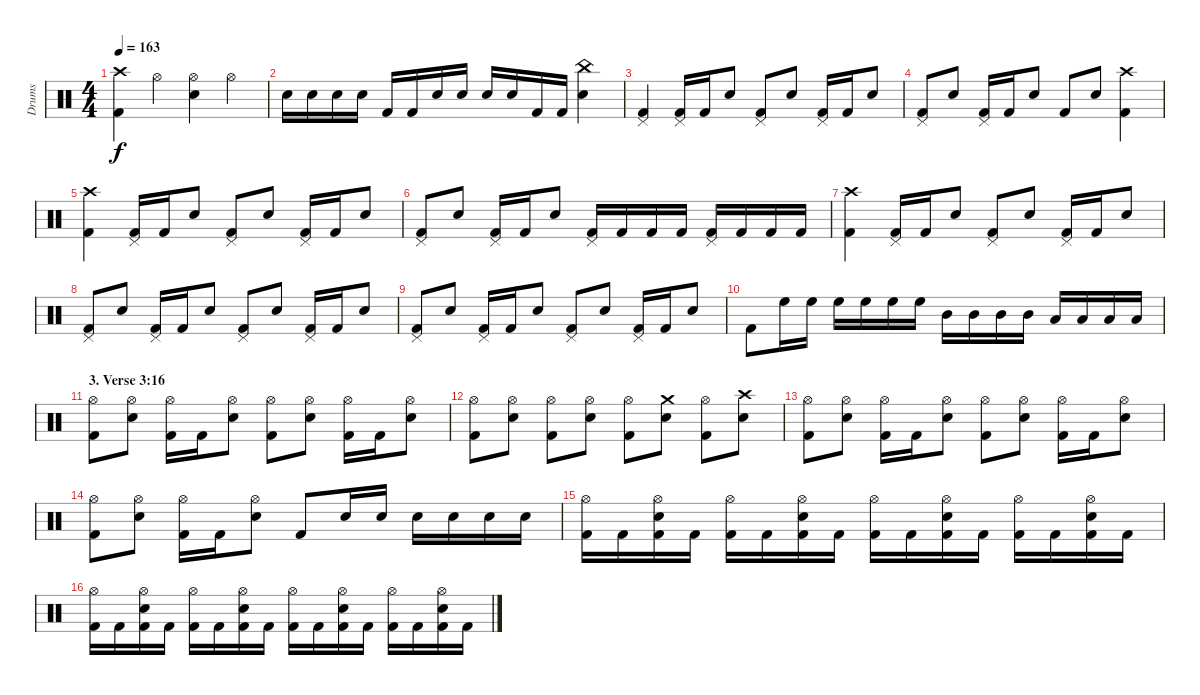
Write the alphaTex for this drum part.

\track ("Drums" "Drums") {instrument percussion}
\staff {score}
\articulation defaults
\ts (4 4)
\tempo 163
\clef neutral
\ks c
("Crash high (hit)" "Kick (hit) 2").4{dy f} "Hi-Hat (open)".4 ("Hi-Hat (open)" "Snare (hit) 2").4 "Hi-Hat (open)".4 |
"Snare (hit) 2".16 "Snare (hit) 2".16 "Snare (hit) 2".16 "Snare (hit) 2".16 "Kick (hit) 2".16 "Kick (hit) 2".16 "Snare (hit) 2".16 "Snare (hit) 2".16 "Snare (hit) 2".16 "Snare (hit) 2".16 "Kick (hit) 2".16 "Kick (hit) 2".16 ("Snare (hit) 2" "China (hit)").4 |
("Pedal Hi-Hat (hit)" "Kick (hit) 2").4 ("Pedal Hi-Hat (hit)" "Kick (hit) 2").16 "Kick (hit) 2".16 "Snare (hit) 2".8 ("Pedal Hi-Hat (hit)" "Kick (hit) 2").8 "Snare (hit) 2".8 ("Pedal Hi-Hat (hit)" "Kick (hit) 2").16 "Kick (hit) 2".16 "Snare (hit) 2".8 |
("Pedal Hi-Hat (hit)" "Kick (hit) 2").8 "Snare (hit) 2".8 ("Pedal Hi-Hat (hit)" "Kick (hit) 2").16 "Kick (hit) 2".16 "Snare (hit) 2".8 "Kick (hit) 2".8 "Snare (hit) 2".8 ("Crash high (hit)" "Kick (hit) 2").4 |
("Crash high (hit)" "Kick (hit) 2").4 ("Pedal Hi-Hat (hit)" "Kick (hit) 2").16 "Kick (hit) 2".16 "Snare (hit) 2".8 ("Pedal Hi-Hat (hit)" "Kick (hit) 2").8 "Snare (hit) 2".8 ("Pedal Hi-Hat (hit)" "Kick (hit) 2").16 "Kick (hit) 2".16 "Snare (hit) 2".8 |
("Pedal Hi-Hat (hit)" "Kick (hit) 2").8 "Snare (hit) 2".8 ("Pedal Hi-Hat (hit)" "Kick (hit) 2").16 "Kick (hit) 2".16 "Snare (hit) 2".8 ("Pedal Hi-Hat (hit)" "Kick (hit) 2").16 "Kick (hit) 2".16 "Kick (hit) 2".16 "Kick (hit) 2".16 ("Pedal Hi-Hat (hit)" "Kick (hit) 2").16 "Kick (hit) 2".16 "Kick (hit) 2".16 "Kick (hit) 2".16 |
("Crash high (hit)" "Kick (hit) 2").4 ("Pedal Hi-Hat (hit)" "Kick (hit) 2").16 "Kick (hit) 2".16 "Snare (hit) 2".8 ("Pedal Hi-Hat (hit)" "Kick (hit) 2").8 "Snare (hit) 2".8 ("Pedal Hi-Hat (hit)" "Kick (hit) 2").16 "Kick (hit) 2".16 "Snare (hit) 2".8 |
("Pedal Hi-Hat (hit)" "Kick (hit) 2").8 "Snare (hit) 2".8 ("Pedal Hi-Hat (hit)" "Kick (hit) 2").16 "Kick (hit) 2".16 "Snare (hit) 2".8 ("Pedal Hi-Hat (hit)" "Kick (hit) 2").8 "Snare (hit) 2".8 ("Pedal Hi-Hat (hit)" "Kick (hit) 2").16 "Kick (hit) 2".16 "Snare (hit) 2".8 |
("Pedal Hi-Hat (hit)" "Kick (hit) 2").8 "Snare (hit) 2".8 ("Pedal Hi-Hat (hit)" "Kick (hit) 2").16 "Kick (hit) 2".16 "Snare (hit) 2".8 ("Pedal Hi-Hat (hit)" "Kick (hit) 2").8 "Snare (hit) 2".8 ("Pedal Hi-Hat (hit)" "Kick (hit) 2").16 "Kick (hit) 2".16 "Snare (hit) 2".8 |
"Kick (hit) 2".8 "High Floor Tom (hit)".16 "High Floor Tom (hit)".16 "High Floor Tom (hit)".16 "High Floor Tom (hit)".16 "High Floor Tom (hit)".16 "High Floor Tom (hit)".16 "Mid Tom (hit)".16 "Mid Tom (hit)".16 "Mid Tom (hit)".16 "Mid Tom (hit)".16 "Low Tom (hit)".16 "Low Tom (hit)".16 "Low Tom (hit)".16 "Low Tom (hit)".16 |
\section ("" "3. Verse 3:16")
("Hi-Hat (open)" "Kick (hit) 2").8 ("Hi-Hat (open)" "Snare (hit) 2").8 ("Hi-Hat (open)" "Kick (hit) 2").16 "Kick (hit) 2".16 ("Hi-Hat (open)" "Snare (hit) 2").8 ("Hi-Hat (open)" "Kick (hit) 2").8 ("Hi-Hat (open)" "Snare (hit) 2").8 ("Hi-Hat (open)" "Kick (hit) 2").16 "Kick (hit) 2".16 ("Hi-Hat (open)" "Snare (hit) 2").8 |
("Hi-Hat (open)" "Kick (hit) 2").8 ("Hi-Hat (open)" "Snare (hit) 2").8 ("Hi-Hat (open)" "Kick (hit) 2").8 ("Hi-Hat (open)" "Snare (hit) 2").8 ("Hi-Hat (open)" "Kick (hit) 2").8 ("Crash medium (hit)" "Snare (hit) 2").8 ("Hi-Hat (open)" "Kick (hit) 2").8 ("Crash high (hit)" "Snare (hit) 2").8 |
("Hi-Hat (open)" "Kick (hit) 2").8 ("Hi-Hat (open)" "Snare (hit) 2").8 ("Hi-Hat (open)" "Kick (hit) 2").16 "Kick (hit) 2".16 ("Hi-Hat (open)" "Snare (hit) 2").8 ("Hi-Hat (open)" "Kick (hit) 2").8 ("Hi-Hat (open)" "Snare (hit) 2").8 ("Hi-Hat (open)" "Kick (hit) 2").16 "Kick (hit) 2".16 ("Hi-Hat (open)" "Snare (hit) 2").8 |
("Hi-Hat (open)" "Kick (hit) 2").8 ("Hi-Hat (open)" "Snare (hit) 2").8 ("Hi-Hat (open)" "Kick (hit) 2").16 "Kick (hit) 2".16 ("Hi-Hat (open)" "Snare (hit) 2").8 "Kick (hit) 2".8 "Snare (hit) 2".16 "Snare (hit) 2".16 "Snare (hit) 2".16 "Snare (hit) 2".16 "Snare (hit) 2".16 "Snare (hit) 2".16 |
("Hi-Hat (open)" "Kick (hit) 2").16 "Kick (hit) 2".16 ("Hi-Hat (open)" "Kick (hit) 2" "Snare (hit) 2").16 "Kick (hit) 2".16 ("Hi-Hat (open)" "Kick (hit) 2").16 "Kick (hit) 2".16 ("Hi-Hat (open)" "Kick (hit) 2" "Snare (hit) 2").16 "Kick (hit) 2".16 ("Hi-Hat (open)" "Kick (hit) 2").16 "Kick (hit) 2".16 ("Hi-Hat (open)" "Kick (hit) 2" "Snare (hit) 2").16 "Kick (hit) 2".16 ("Hi-Hat (open)" "Kick (hit) 2").16 "Kick (hit) 2".16 ("Hi-Hat (open)" "Kick (hit) 2" "Snare (hit) 2").16 "Kick (hit) 2".16 |
("Hi-Hat (open)" "Kick (hit) 2").16 "Kick (hit) 2".16 ("Hi-Hat (open)" "Kick (hit) 2" "Snare (hit) 2").16 "Kick (hit) 2".16 ("Hi-Hat (open)" "Kick (hit) 2").16 "Kick (hit) 2".16 ("Hi-Hat (open)" "Kick (hit) 2" "Snare (hit) 2").16 "Kick (hit) 2".16 ("Hi-Hat (open)" "Kick (hit) 2").16 "Kick (hit) 2".16 ("Hi-Hat (open)" "Kick (hit) 2" "Snare (hit) 2").16 "Kick (hit) 2".16 ("Hi-Hat (open)" "Kick (hit) 2").16 "Kick (hit) 2".16 ("Hi-Hat (open)" "Kick (hit) 2" "Snare (hit) 2").16 "Kick (hit) 2".16
